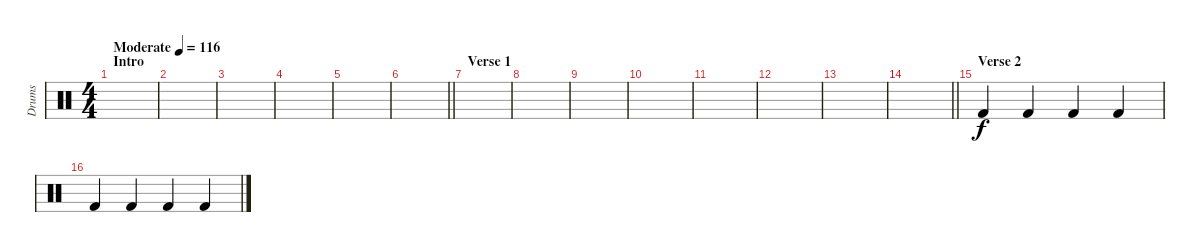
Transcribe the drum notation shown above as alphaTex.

\track ("Drums" "Drums") {mute instrument percussion}
\staff {score}
\articulation defaults
\ts (4 4)
\section ("" "Intro")
\tempo (116 "Moderate")
\clef neutral
\ks c
|
|
|
|
|
\barLineRight lightlight
|
\section ("" "Verse 1")
|
|
|
|
|
|
|
\barLineRight lightlight
|
\section ("" "Verse 2")
"Kick (hit) 2".4 "Kick (hit) 2".4 "Kick (hit) 2".4 "Kick (hit) 2".4 |
"Kick (hit) 2".4 "Kick (hit) 2".4 "Kick (hit) 2".4 "Kick (hit) 2".4
